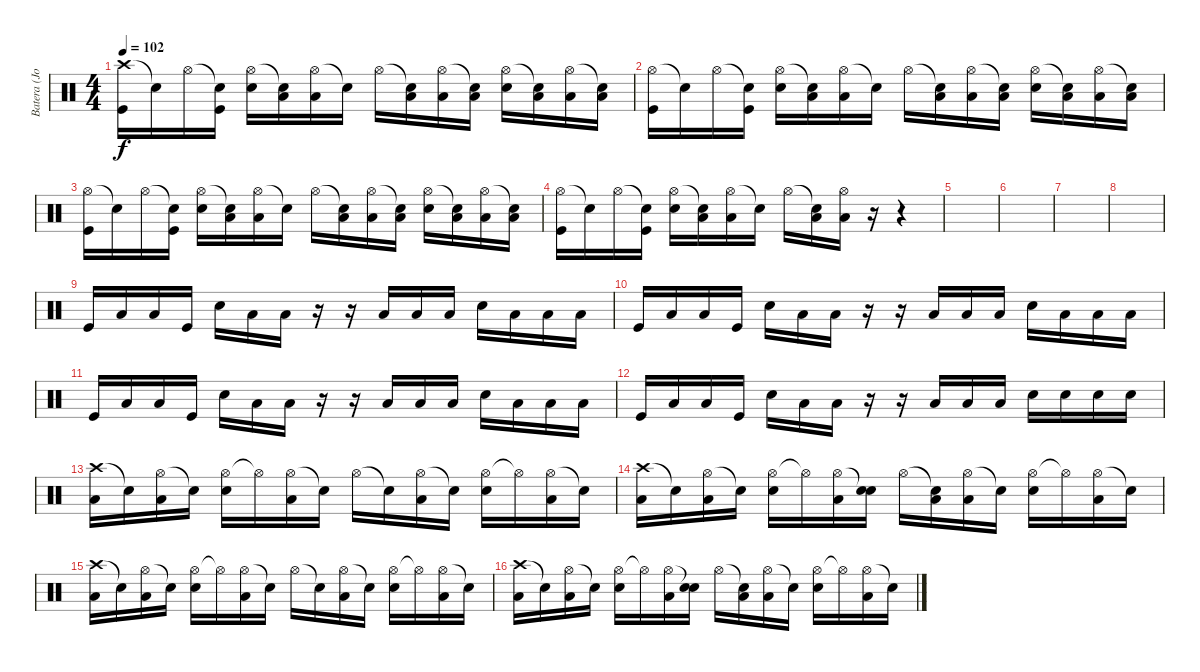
\track ("Batera (John)" "Batera (Jo") {instrument percussion}
\staff {score}
\articulation defaults
\ts (4 4)
\tempo 102
\clef neutral
\ks c
("Crash high (hit)" "Kick (hit)").16{dy f} "Snare (hit)"{t}.16 "Hi-Hat (open)".16 ("Snare (hit)"{t} "Kick (hit)").16 ("Hi-Hat (open)" "Snare (hit) 2").16 ("Snare (hit)"{t} "Low Tom (hit)").16 ("Hi-Hat (open)" "Low Tom (hit)").16 "Snare (hit)"{t}.16 "Hi-Hat (open)".16 ("Snare (hit)"{t} "Low Tom (hit)").16 ("Hi-Hat (open)" "Low Tom (hit)").16 ("Snare (hit)"{t} "Low Tom (hit)").16 ("Hi-Hat (open)" "Snare (hit) 2").16 ("Snare (hit)"{t} "Low Tom (hit)").16 ("Hi-Hat (open)" "Low Tom (hit)").16 ("Snare (hit)"{t} "Low Tom (hit)").16 |
("Hi-Hat (open)" "Kick (hit)").16 "Snare (hit)"{t}.16 "Hi-Hat (open)".16 ("Snare (hit)"{t} "Kick (hit)").16 ("Hi-Hat (open)" "Snare (hit) 2").16 ("Snare (hit)"{t} "Low Tom (hit)").16 ("Hi-Hat (open)" "Low Tom (hit)").16 "Snare (hit)"{t}.16 "Hi-Hat (open)".16 ("Snare (hit)"{t} "Low Tom (hit)").16 ("Hi-Hat (open)" "Low Tom (hit)").16 ("Snare (hit)"{t} "Low Tom (hit)").16 ("Hi-Hat (open)" "Snare (hit) 2").16 ("Snare (hit)"{t} "Low Tom (hit)").16 ("Hi-Hat (open)" "Low Tom (hit)").16 ("Snare (hit)"{t} "Low Tom (hit)").16 |
("Hi-Hat (open)" "Kick (hit)").16 "Snare (hit)"{t}.16 "Hi-Hat (open)".16 ("Snare (hit)"{t} "Kick (hit)").16 ("Hi-Hat (open)" "Snare (hit) 2").16 ("Snare (hit)"{t} "Low Tom (hit)").16 ("Hi-Hat (open)" "Low Tom (hit)").16 "Snare (hit)"{t}.16 "Hi-Hat (open)".16 ("Snare (hit)"{t} "Low Tom (hit)").16 ("Hi-Hat (open)" "Low Tom (hit)").16 ("Snare (hit)"{t} "Low Tom (hit)").16 ("Hi-Hat (open)" "Snare (hit) 2").16 ("Snare (hit)"{t} "Low Tom (hit)").16 ("Hi-Hat (open)" "Low Tom (hit)").16 ("Snare (hit)"{t} "Low Tom (hit)").16 |
("Hi-Hat (open)" "Kick (hit)").16 "Snare (hit)"{t}.16 "Hi-Hat (open)".16 ("Snare (hit)"{t} "Kick (hit)").16 ("Hi-Hat (open)" "Snare (hit) 2").16 ("Snare (hit)"{t} "Low Tom (hit)").16 ("Hi-Hat (open)" "Low Tom (hit)").16 "Snare (hit)"{t}.16 "Hi-Hat (open)".16 ("Snare (hit)"{t} "Low Tom (hit)").16 ("Hi-Hat (open)" "Low Tom (hit)").16 r.16 r.4 |
|
|
|
|
"Kick (hit)".16 "Low Tom (hit)".16 "Low Tom (hit)".16 "Kick (hit)".16 "Snare (hit) 2".16 "Low Tom (hit)".16 "Low Tom (hit)".16 r.16 r.16 "Low Tom (hit)".16 "Low Tom (hit)".16 "Low Tom (hit)".16 "Snare (hit) 2".16 "Low Tom (hit)".16 "Low Tom (hit)".16 "Low Tom (hit)".16 |
"Kick (hit)".16 "Low Tom (hit)".16 "Low Tom (hit)".16 "Kick (hit)".16 "Snare (hit) 2".16 "Low Tom (hit)".16 "Low Tom (hit)".16 r.16 r.16 "Low Tom (hit)".16 "Low Tom (hit)".16 "Low Tom (hit)".16 "Snare (hit) 2".16 "Low Tom (hit)".16 "Low Tom (hit)".16 "Low Tom (hit)".16 |
"Kick (hit)".16 "Low Tom (hit)".16 "Low Tom (hit)".16 "Kick (hit)".16 "Snare (hit) 2".16 "Low Tom (hit)".16 "Low Tom (hit)".16 r.16 r.16 "Low Tom (hit)".16 "Low Tom (hit)".16 "Low Tom (hit)".16 "Snare (hit) 2".16 "Low Tom (hit)".16 "Low Tom (hit)".16 "Low Tom (hit)".16 |
"Kick (hit)".16 "Low Tom (hit)".16 "Low Tom (hit)".16 "Kick (hit)".16 "Snare (hit) 2".16 "Low Tom (hit)".16 "Low Tom (hit)".16 r.16 r.16 "Low Tom (hit)".16 "Low Tom (hit)".16 "Low Tom (hit)".16 "Snare (hit) 2".16 "Snare (hit) 2".16 "Snare (hit) 2".16 "Snare (hit) 2".16 |
("Crash high (hit)" "Low Tom (hit)").16 "Snare (hit)"{t}.16 ("Hi-Hat (open)" "Low Tom (hit)").16 "Snare (hit)"{t}.16 ("Hi-Hat (open)" "Snare (hit) 2").16 "Hi-Hat (open)"{t}.16 ("Hi-Hat (open)" "Low Tom (hit)").16 "Snare (hit)"{t}.16 "Hi-Hat (open)".16 "Snare (hit)"{t}.16 ("Hi-Hat (open)" "Low Tom (hit)").16 "Snare (hit)"{t}.16 ("Hi-Hat (open)" "Snare (hit) 2").16 "Hi-Hat (open)"{t}.16 ("Hi-Hat (open)" "Low Tom (hit)").16 "Snare (hit)"{t}.16 |
("Crash high (hit)" "Low Tom (hit)").16 "Snare (hit)"{t}.16 ("Hi-Hat (open)" "Low Tom (hit)").16 "Snare (hit)"{t}.16 ("Hi-Hat (open)" "Snare (hit) 2").16 "Hi-Hat (open)"{t}.16 ("Hi-Hat (open)" "Low Tom (hit)").16 ("Snare (hit)"{t} "Snare (hit) 2").16 "Hi-Hat (open)".16 ("Snare (hit)"{t} "Low Tom (hit)").16 ("Hi-Hat (open)" "Low Tom (hit)").16 "Snare (hit)"{t}.16 ("Hi-Hat (open)" "Snare (hit) 2").16 "Hi-Hat (open)"{t}.16 ("Hi-Hat (open)" "Low Tom (hit)").16 "Snare (hit)"{t}.16 |
("Crash high (hit)" "Low Tom (hit)").16 "Snare (hit)"{t}.16 ("Hi-Hat (open)" "Low Tom (hit)").16 "Snare (hit)"{t}.16 ("Hi-Hat (open)" "Snare (hit) 2").16 "Hi-Hat (open)"{t}.16 ("Hi-Hat (open)" "Low Tom (hit)").16 "Snare (hit)"{t}.16 "Hi-Hat (open)".16 "Snare (hit)"{t}.16 ("Hi-Hat (open)" "Low Tom (hit)").16 "Snare (hit)"{t}.16 ("Hi-Hat (open)" "Snare (hit) 2").16 "Hi-Hat (open)"{t}.16 ("Hi-Hat (open)" "Low Tom (hit)").16 "Snare (hit)"{t}.16 |
("Crash high (hit)" "Low Tom (hit)").16 "Snare (hit)"{t}.16 ("Hi-Hat (open)" "Low Tom (hit)").16 "Snare (hit)"{t}.16 ("Hi-Hat (open)" "Snare (hit) 2").16 "Hi-Hat (open)"{t}.16 ("Hi-Hat (open)" "Low Tom (hit)").16 ("Snare (hit)"{t} "Snare (hit) 2").16 "Hi-Hat (open)".16 ("Snare (hit)"{t} "Low Tom (hit)").16 ("Hi-Hat (open)" "Low Tom (hit)").16 "Snare (hit)"{t}.16 ("Hi-Hat (open)" "Snare (hit) 2").16 "Hi-Hat (open)"{t}.16 ("Hi-Hat (open)" "Low Tom (hit)").16 "Snare (hit)"{t}.16
